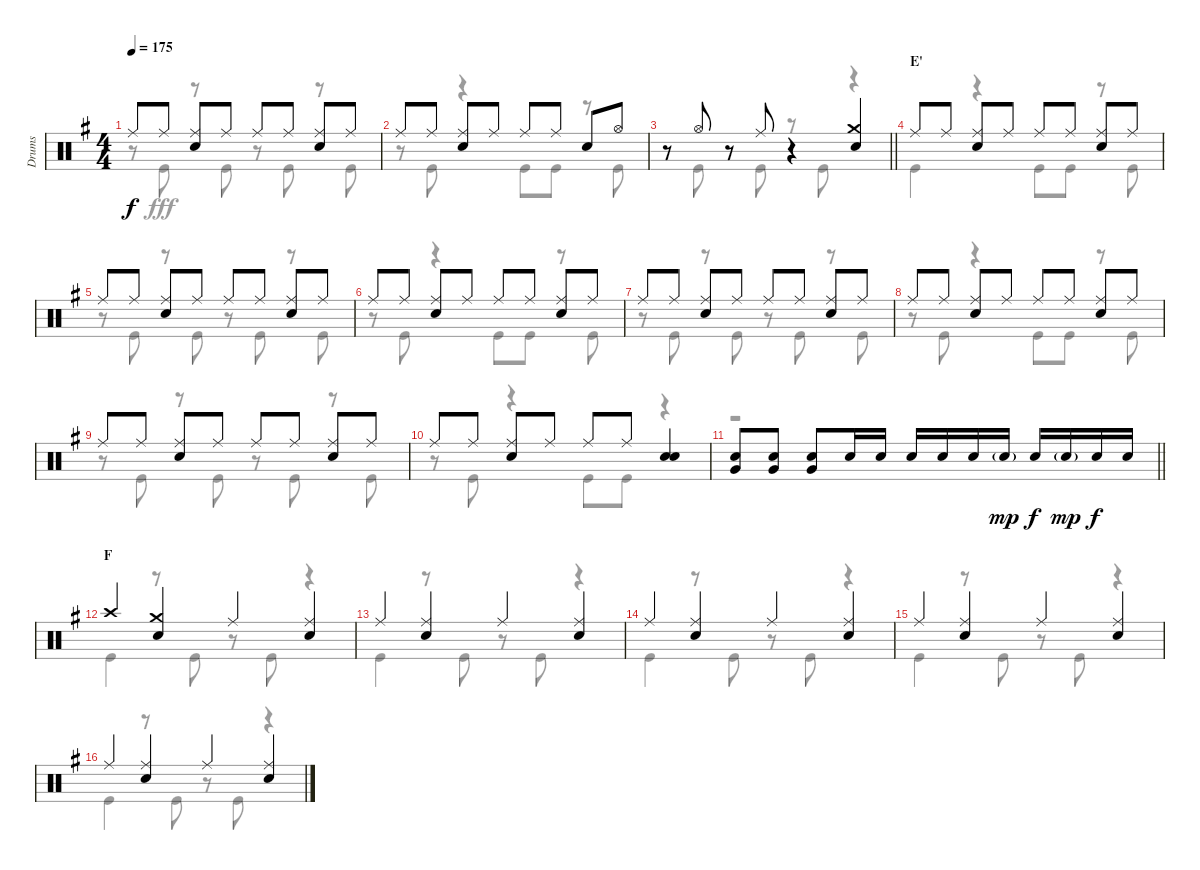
\track ("Drums" "Drums") {instrument percussion}
\staff {score}
\articulation defaults
\voice
\ts (4 4)
\tempo 175
\clef neutral
\ks g "Ride (middle)".8{dy f} "Ride (middle)".8
("Ride (middle)" "Snare (hit) 2").8 "Ride (middle)".8 "Ride (middle)".8 "Ride (middle)".8 ("Ride (middle)" "Snare (hit) 2").8 "Ride (middle)".8 |
"Ride (middle)".8 "Ride (middle)".8 ("Ride (middle)" "Snare (hit) 2").8 "Ride (middle)".8 "Ride (middle)".8 "Ride (middle)".8 "Snare (hit) 2".8 "Hi-Hat (open)".8 |
\barLineRight lightlight
r.8 "Hi-Hat (open)".8 r.8 "Ride (middle)".8 r.4 ("Crash medium (hit)" "Snare (hit) 2").4 |
\section ("" "E'")
"Ride (middle)".8 "Ride (middle)".8 ("Ride (middle)" "Snare (hit) 2").8 "Ride (middle)".8 "Ride (middle)".8 "Ride (middle)".8 ("Ride (middle)" "Snare (hit) 2").8 "Ride (middle)".8 |
"Ride (middle)".8 "Ride (middle)".8 ("Ride (middle)" "Snare (hit) 2").8 "Ride (middle)".8 "Ride (middle)".8 "Ride (middle)".8 ("Ride (middle)" "Snare (hit) 2").8 "Ride (middle)".8 |
"Ride (middle)".8 "Ride (middle)".8 ("Ride (middle)" "Snare (hit) 2").8 "Ride (middle)".8 "Ride (middle)".8 "Ride (middle)".8 ("Ride (middle)" "Snare (hit) 2").8 "Ride (middle)".8 |
"Ride (middle)".8 "Ride (middle)".8 ("Ride (middle)" "Snare (hit) 2").8 "Ride (middle)".8 "Ride (middle)".8 "Ride (middle)".8 ("Ride (middle)" "Snare (hit) 2").8 "Ride (middle)".8 |
"Ride (middle)".8 "Ride (middle)".8 ("Ride (middle)" "Snare (hit) 2").8 "Ride (middle)".8 "Ride (middle)".8 "Ride (middle)".8 ("Ride (middle)" "Snare (hit) 2").8 "Ride (middle)".8 |
"Ride (middle)".8 "Ride (middle)".8 ("Ride (middle)" "Snare (hit) 2").8 "Ride (middle)".8 "Ride (middle)".8 "Ride (middle)".8 ("Ride (middle)" "Snare (hit) 2").8 "Ride (middle)".8 |
"Ride (middle)".8 "Ride (middle)".8 ("Ride (middle)" "Snare (hit) 2").8 "Ride (middle)".8 "Ride (middle)".8 "Ride (middle)".8 ("Snare (hit) 2" "Snare (hit) 2").4 |
\barLineRight lightlight
("Snare (hit) 2" "Very Low Tom (hit)").8 ("Snare (hit) 2" "Very Low Tom (hit)").8 ("Snare (hit) 2" "Very Low Tom (hit)").8 "Snare (hit) 2".16 "Snare (hit) 2".16 "Snare (hit) 2".16 "Snare (hit) 2".16 "Snare (hit) 2".16 "Snare (hit) 2"{g}.16{dy mp} "Snare (hit) 2".16{dy f} "Snare (hit) 2"{g}.16{dy mp} "Snare (hit) 2".16{dy f} "Snare (hit) 2".16 |
\section ("" "F")
"Crash high (hit)".4 ("Crash medium (hit)" "Snare (hit) 2").4 "Ride (middle)".4 ("Ride (middle)" "Snare (hit) 2").4 |
"Ride (middle)".4 ("Ride (middle)" "Snare (hit) 2").4 "Ride (middle)".4 ("Ride (middle)" "Snare (hit) 2").4 |
"Ride (middle)".4 ("Ride (middle)" "Snare (hit) 2").4 "Ride (middle)".4 ("Ride (middle)" "Snare (hit) 2").4 |
"Ride (middle)".4 ("Ride (middle)" "Snare (hit) 2").4 "Ride (middle)".4 ("Ride (middle)" "Snare (hit) 2").4 |
"Ride (middle)".4 ("Ride (middle)" "Snare (hit) 2").4 "Ride (middle)".4 ("Ride (middle)" "Snare (hit) 2").4
\voice
\clef neutral
\ottava regular
\simile none
\ks g
r.8{dy fff} "Kick (hit)".8 r.8 "Kick (hit)".8 r.8 "Kick (hit)".8 r.8 "Kick (hit)".8 |
r.8 "Kick (hit)".8 r.4 "Kick (hit)".8 "Kick (hit)".8 r.8 "Kick (hit)".8 |
\barLineRight lightlight
r.8 "Kick (hit)".8 r.8 "Kick (hit)".8 r.8 "Kick (hit)".8 r.4 |
"Kick (hit)".4 r.4 "Kick (hit)".8 "Kick (hit)".8 r.8 "Kick (hit)".8 |
r.8 "Kick (hit)".8 r.8 "Kick (hit)".8 r.8 "Kick (hit)".8 r.8 "Kick (hit)".8 |
r.8 "Kick (hit)".8 r.4 "Kick (hit)".8 "Kick (hit)".8 r.8 "Kick (hit)".8 |
r.8 "Kick (hit)".8 r.8 "Kick (hit)".8 r.8 "Kick (hit)".8 r.8 "Kick (hit)".8 |
r.8 "Kick (hit)".8 r.4 "Kick (hit)".8 "Kick (hit)".8 r.8 "Kick (hit)".8 |
r.8 "Kick (hit)".8 r.8 "Kick (hit)".8 r.8 "Kick (hit)".8 r.8 "Kick (hit)".8 |
r.8 "Kick (hit)".8 r.4 "Kick (hit)".8 "Kick (hit)".8 r.4 |
\barLineRight lightlight
r.1 |
"Kick (hit)".4 r.8 "Kick (hit)".8 r.8 "Kick (hit)".8 r.4 |
"Kick (hit)".4 r.8 "Kick (hit)".8 r.8 "Kick (hit)".8 r.4 |
"Kick (hit)".4 r.8 "Kick (hit)".8 r.8 "Kick (hit)".8 r.4 |
"Kick (hit)".4 r.8 "Kick (hit)".8 r.8 "Kick (hit)".8 r.4 |
"Kick (hit)".4 r.8 "Kick (hit)".8 r.8 "Kick (hit)".8 r.4
